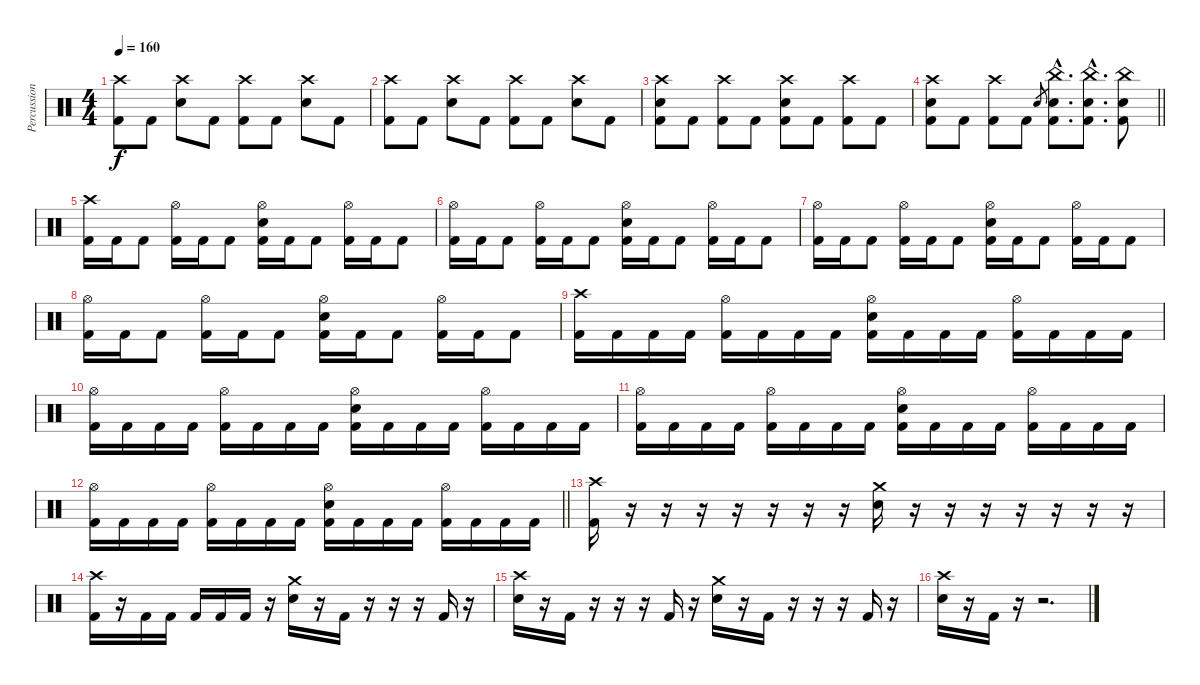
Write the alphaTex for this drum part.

\track ("Percussion" "Percussion") {instrument percussion}
\staff {score}
\articulation defaults
\ts (4 4)
\tempo 160
\clef neutral
\ks c
("Crash high (hit)" "Kick (hit) 2").8{dy f} "Kick (hit) 2".8 ("Crash high (hit)" "Snare (hit) 2").8 "Kick (hit) 2".8 ("Crash high (hit)" "Kick (hit) 2").8 "Kick (hit) 2".8 ("Crash high (hit)" "Snare (hit) 2").8 "Kick (hit) 2".8 |
("Crash high (hit)" "Kick (hit) 2").8 "Kick (hit) 2".8 ("Crash high (hit)" "Snare (hit) 2").8 "Kick (hit) 2".8 ("Crash high (hit)" "Kick (hit) 2").8 "Kick (hit) 2".8 ("Crash high (hit)" "Snare (hit) 2").8 "Kick (hit) 2".8 |
("Crash high (hit)" "Snare (hit) 2" "Kick (hit) 2").8 "Kick (hit) 2".8 ("Crash high (hit)" "Kick (hit) 2").8 "Kick (hit) 2".8 ("Crash high (hit)" "Snare (hit) 2" "Kick (hit) 2").8 "Kick (hit) 2".8 ("Crash high (hit)" "Kick (hit) 2").8 "Kick (hit) 2".8 |
\barLineRight lightlight
("Crash high (hit)" "Snare (hit) 2" "Kick (hit) 2").8 "Kick (hit) 2".8 ("Crash high (hit)" "Kick (hit) 2").8 "Kick (hit) 2".8 "Snare (hit) 2".8{gr} ("China (hit)"{hac} "Snare (hit) 2"{hac} "Kick (hit) 2"{hac}).8{d} ("China (hit)"{hac} "Snare (hit) 2"{hac} "Kick (hit) 2"{hac}).8{d} ("China (hit)" "Snare (hit) 2" "Kick (hit) 2").8 |
\section ("" "")
("Crash high (hit)" "Kick (hit) 2").16 "Kick (hit) 2".16 "Kick (hit) 2".8 ("Hi-Hat (open)" "Kick (hit) 2").16 "Kick (hit) 2".16 "Kick (hit) 2".8 ("Hi-Hat (open)" "Snare (hit) 2" "Kick (hit) 2").16 "Kick (hit) 2".16 "Kick (hit) 2".8 ("Hi-Hat (open)" "Kick (hit) 2").16 "Kick (hit) 2".16 "Kick (hit) 2".8 |
("Hi-Hat (open)" "Kick (hit) 2").16 "Kick (hit) 2".16 "Kick (hit) 2".8 ("Hi-Hat (open)" "Kick (hit) 2").16 "Kick (hit) 2".16 "Kick (hit) 2".8 ("Hi-Hat (open)" "Snare (hit) 2" "Kick (hit) 2").16 "Kick (hit) 2".16 "Kick (hit) 2".8 ("Hi-Hat (open)" "Kick (hit) 2").16 "Kick (hit) 2".16 "Kick (hit) 2".8 |
("Hi-Hat (open)" "Kick (hit) 2").16 "Kick (hit) 2".16 "Kick (hit) 2".8 ("Hi-Hat (open)" "Kick (hit) 2").16 "Kick (hit) 2".16 "Kick (hit) 2".8 ("Hi-Hat (open)" "Snare (hit) 2" "Kick (hit) 2").16 "Kick (hit) 2".16 "Kick (hit) 2".8 ("Hi-Hat (open)" "Kick (hit) 2").16 "Kick (hit) 2".16 "Kick (hit) 2".8 |
("Hi-Hat (open)" "Kick (hit) 2").16 "Kick (hit) 2".16 "Kick (hit) 2".8 ("Hi-Hat (open)" "Kick (hit) 2").16 "Kick (hit) 2".16 "Kick (hit) 2".8 ("Hi-Hat (open)" "Snare (hit) 2" "Kick (hit) 2").16 "Kick (hit) 2".16 "Kick (hit) 2".8 ("Hi-Hat (open)" "Kick (hit) 2").16 "Kick (hit) 2".16 "Kick (hit) 2".8 |
("Crash high (hit)" "Kick (hit) 2").16 "Kick (hit) 2".16 "Kick (hit) 2".16 "Kick (hit) 2".16 ("Hi-Hat (open)" "Kick (hit) 2").16 "Kick (hit) 2".16 "Kick (hit) 2".16 "Kick (hit) 2".16 ("Hi-Hat (open)" "Snare (hit) 2" "Kick (hit) 2").16 "Kick (hit) 2".16 "Kick (hit) 2".16 "Kick (hit) 2".16 ("Hi-Hat (open)" "Kick (hit) 2").16 "Kick (hit) 2".16 "Kick (hit) 2".16 "Kick (hit) 2".16 |
("Hi-Hat (open)" "Kick (hit) 2").16 "Kick (hit) 2".16 "Kick (hit) 2".16 "Kick (hit) 2".16 ("Hi-Hat (open)" "Kick (hit) 2").16 "Kick (hit) 2".16 "Kick (hit) 2".16 "Kick (hit) 2".16 ("Hi-Hat (open)" "Snare (hit) 2" "Kick (hit) 2").16 "Kick (hit) 2".16 "Kick (hit) 2".16 "Kick (hit) 2".16 ("Hi-Hat (open)" "Kick (hit) 2").16 "Kick (hit) 2".16 "Kick (hit) 2".16 "Kick (hit) 2".16 |
("Hi-Hat (open)" "Kick (hit) 2").16 "Kick (hit) 2".16 "Kick (hit) 2".16 "Kick (hit) 2".16 ("Hi-Hat (open)" "Kick (hit) 2").16 "Kick (hit) 2".16 "Kick (hit) 2".16 "Kick (hit) 2".16 ("Hi-Hat (open)" "Snare (hit) 2" "Kick (hit) 2").16 "Kick (hit) 2".16 "Kick (hit) 2".16 "Kick (hit) 2".16 ("Hi-Hat (open)" "Kick (hit) 2").16 "Kick (hit) 2".16 "Kick (hit) 2".16 "Kick (hit) 2".16 |
\barLineRight lightlight
("Hi-Hat (open)" "Kick (hit) 2").16 "Kick (hit) 2".16 "Kick (hit) 2".16 "Kick (hit) 2".16 ("Hi-Hat (open)" "Kick (hit) 2").16 "Kick (hit) 2".16 "Kick (hit) 2".16 "Kick (hit) 2".16 ("Hi-Hat (open)" "Snare (hit) 2" "Kick (hit) 2").16 "Kick (hit) 2".16 "Kick (hit) 2".16 "Kick (hit) 2".16 ("Hi-Hat (open)" "Kick (hit) 2").16 "Kick (hit) 2".16 "Kick (hit) 2".16 "Kick (hit) 2".16 |
\section ("" "")
("Crash high (hit)" "Kick (hit) 2").16 r.16 r.16 r.16 r.16 r.16 r.16 r.16 ("Crash medium (hit)" "Snare (hit) 2").16 r.16 r.16 r.16 r.16 r.16 r.16 r.16 |
("Crash high (hit)" "Kick (hit) 2").16 r.16 "Kick (hit) 2".16 "Kick (hit) 2".16 "Kick (hit) 2".16 "Kick (hit) 2".16 "Kick (hit) 2".16 r.16 ("Crash medium (hit)" "Snare (hit) 2").16 r.16 "Kick (hit) 2".16 r.16 r.16 r.16 "Kick (hit) 2".16 r.16 |
("Crash high (hit)" "Snare (hit) 2").16 r.16 "Kick (hit) 2".16 r.16 r.16 r.16 "Kick (hit) 2".16 r.16 ("Crash medium (hit)" "Snare (hit) 2").16 r.16 "Kick (hit) 2".16 r.16 r.16 r.16 "Kick (hit) 2".16 r.16 |
("Crash high (hit)" "Snare (hit) 2").16 r.16 "Kick (hit) 2".16 r.16 r.2{d}
